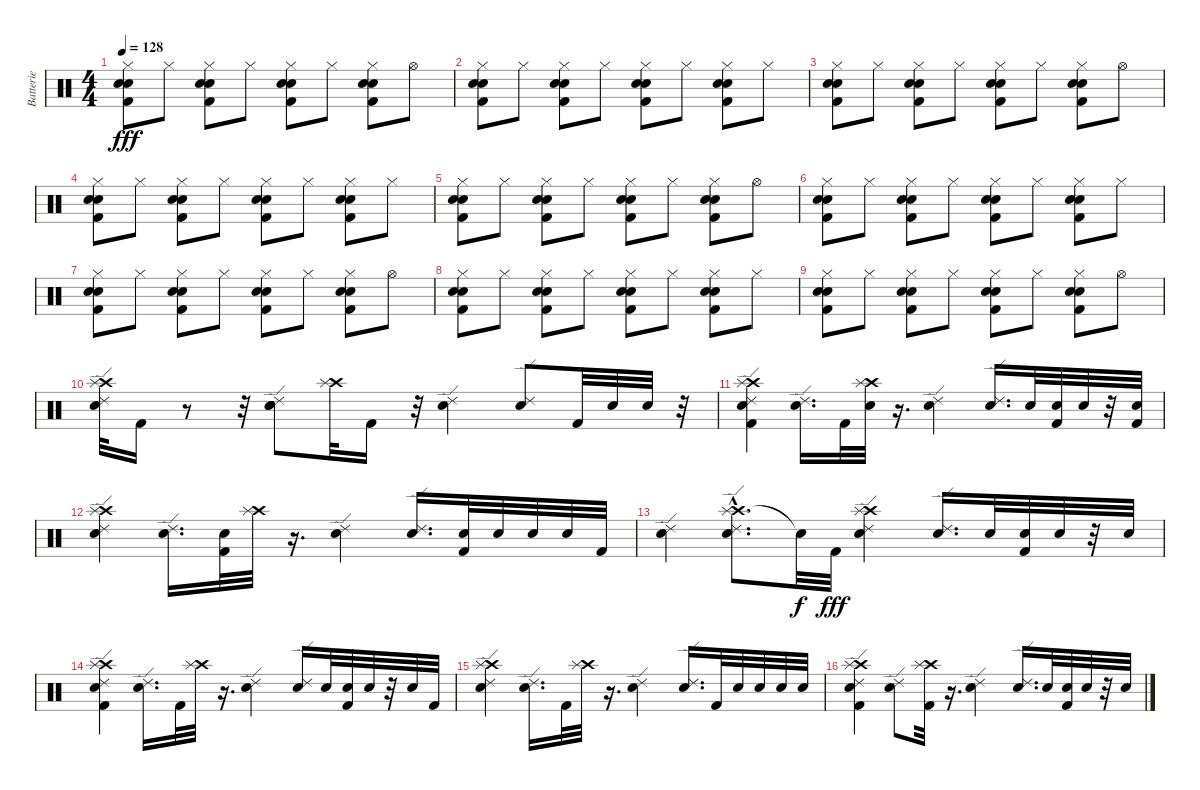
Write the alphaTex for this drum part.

\track ("Batterie" "Batterie") {instrument percussion}
\staff {score}
\articulation defaults
\ts (4 4)
\tempo 128
\clef neutral
\ks c
("Snare (hit) 2" "Kick (hit) 2" "Hi-Hat (closed)" "Electric Snare (hit)").8{dy fff} "Hi-Hat (closed)".8 ("Snare (hit) 2" "Kick (hit) 2" "Hi-Hat (closed)" "Electric Snare (hit)").8 "Hi-Hat (closed)".8 ("Kick (hit) 2" "Snare (hit) 2" "Hi-Hat (closed)" "Electric Snare (hit)").8 "Hi-Hat (closed)".8 ("Kick (hit) 2" "Snare (hit) 2" "Hi-Hat (closed)" "Electric Snare (hit)").8 "Hi-Hat (open)".8 |
("Snare (hit) 2" "Kick (hit) 2" "Hi-Hat (closed)" "Electric Snare (hit)").8 "Hi-Hat (closed)".8 ("Kick (hit) 2" "Snare (hit) 2" "Hi-Hat (closed)" "Electric Snare (hit)").8 "Hi-Hat (closed)".8 ("Snare (hit) 2" "Kick (hit) 2" "Hi-Hat (closed)" "Electric Snare (hit)").8 "Hi-Hat (closed)".8 ("Snare (hit) 2" "Kick (hit) 2" "Hi-Hat (closed)" "Electric Snare (hit)").8 "Hi-Hat (closed)".8 |
("Snare (hit) 2" "Kick (hit) 2" "Hi-Hat (closed)" "Electric Snare (hit)").8 "Hi-Hat (closed)".8 ("Snare (hit) 2" "Kick (hit) 2" "Hi-Hat (closed)" "Electric Snare (hit)").8 "Hi-Hat (closed)".8 ("Kick (hit) 2" "Snare (hit) 2" "Hi-Hat (closed)" "Electric Snare (hit)").8 "Hi-Hat (closed)".8 ("Kick (hit) 2" "Snare (hit) 2" "Hi-Hat (closed)" "Electric Snare (hit)").8 "Hi-Hat (open)".8 |
("Snare (hit) 2" "Kick (hit) 2" "Hi-Hat (closed)" "Electric Snare (hit)").8 "Hi-Hat (closed)".8 ("Kick (hit) 2" "Snare (hit) 2" "Hi-Hat (closed)" "Electric Snare (hit)").8 "Hi-Hat (closed)".8 ("Snare (hit) 2" "Kick (hit) 2" "Hi-Hat (closed)" "Electric Snare (hit)").8 "Hi-Hat (closed)".8 ("Snare (hit) 2" "Kick (hit) 2" "Hi-Hat (closed)" "Electric Snare (hit)").8 "Hi-Hat (closed)".8 |
("Snare (hit) 2" "Kick (hit) 2" "Hi-Hat (closed)" "Electric Snare (hit)").8 "Hi-Hat (closed)".8 ("Snare (hit) 2" "Kick (hit) 2" "Hi-Hat (closed)" "Electric Snare (hit)").8 "Hi-Hat (closed)".8 ("Kick (hit) 2" "Snare (hit) 2" "Hi-Hat (closed)" "Electric Snare (hit)").8 "Hi-Hat (closed)".8 ("Kick (hit) 2" "Snare (hit) 2" "Hi-Hat (closed)" "Electric Snare (hit)").8 "Hi-Hat (open)".8 |
("Snare (hit) 2" "Kick (hit) 2" "Hi-Hat (closed)" "Electric Snare (hit)").8 "Hi-Hat (closed)".8 ("Kick (hit) 2" "Snare (hit) 2" "Hi-Hat (closed)" "Electric Snare (hit)").8 "Hi-Hat (closed)".8 ("Snare (hit) 2" "Kick (hit) 2" "Hi-Hat (closed)" "Electric Snare (hit)").8 "Hi-Hat (closed)".8 ("Snare (hit) 2" "Kick (hit) 2" "Hi-Hat (closed)" "Electric Snare (hit)").8 "Hi-Hat (closed)".8 |
("Snare (hit) 2" "Kick (hit) 2" "Hi-Hat (closed)" "Electric Snare (hit)").8 "Hi-Hat (closed)".8 ("Snare (hit) 2" "Kick (hit) 2" "Hi-Hat (closed)" "Electric Snare (hit)").8 "Hi-Hat (closed)".8 ("Kick (hit) 2" "Snare (hit) 2" "Hi-Hat (closed)" "Electric Snare (hit)").8 "Hi-Hat (closed)".8 ("Kick (hit) 2" "Snare (hit) 2" "Hi-Hat (closed)" "Electric Snare (hit)").8 "Hi-Hat (open)".8 |
("Snare (hit) 2" "Kick (hit) 2" "Hi-Hat (closed)" "Electric Snare (hit)").8 "Hi-Hat (closed)".8 ("Kick (hit) 2" "Snare (hit) 2" "Hi-Hat (closed)" "Electric Snare (hit)").8 "Hi-Hat (closed)".8 ("Snare (hit) 2" "Kick (hit) 2" "Hi-Hat (closed)" "Electric Snare (hit)").8 "Hi-Hat (closed)".8 ("Snare (hit) 2" "Kick (hit) 2" "Hi-Hat (closed)" "Electric Snare (hit)").8 "Hi-Hat (closed)".8 |
("Snare (hit) 2" "Kick (hit) 2" "Hi-Hat (closed)" "Electric Snare (hit)").8 "Hi-Hat (closed)".8 ("Snare (hit) 2" "Kick (hit) 2" "Hi-Hat (closed)" "Electric Snare (hit)").8 "Hi-Hat (closed)".8 ("Kick (hit) 2" "Snare (hit) 2" "Hi-Hat (closed)" "Electric Snare (hit)").8 "Hi-Hat (closed)".8 ("Kick (hit) 2" "Snare (hit) 2" "Hi-Hat (closed)" "Electric Snare (hit)").8 "Hi-Hat (open)".8 |
("Ride (edge) 2" "Electric Snare (hit)" "Crash high (hit)" "Splash (hit)").32 "Kick (hit) 2".16 r.8 r.32 ("Ride (edge) 2" "Electric Snare (hit)" "Snare (hit) 2").8 ("Crash high (hit)" "Splash (hit)").32 "Kick (hit) 2".16 r.32 ("Ride (edge) 2" "Electric Snare (hit)").4 ("Ride (edge) 2" "Electric Snare (hit)").8 "Kick (hit) 2".32 "Snare (hit) 2".32 "Snare (hit) 2".32 r.32 |
("Crash high (hit)" "Splash (hit)" "Ride (edge) 2" "Kick (hit) 2" "Electric Snare (hit)").4 ("Ride (edge) 2" "Electric Snare (hit)").16{d} "Kick (hit) 2".32 ("Snare (hit) 2" "Crash high (hit)" "Splash (hit)").32 r.16{d} ("Ride (edge) 2" "Electric Snare (hit)").4 ("Ride (edge) 2" "Electric Snare (hit)").16{d} "Snare (hit) 2".32 ("Kick (hit) 2" "Snare (hit) 2").32 "Snare (hit) 2".32 r.32 ("Snare (hit) 2" "Kick (hit) 2").32 |
("Crash high (hit)" "Splash (hit)" "Ride (edge) 2" "Electric Snare (hit)").4 ("Ride (edge) 2" "Electric Snare (hit)").16{d} ("Snare (hit) 2" "Kick (hit) 2").32 ("Crash high (hit)" "Splash (hit)").32 r.16{d} ("Ride (edge) 2" "Electric Snare (hit)").4 ("Ride (edge) 2" "Electric Snare (hit)").16{d} ("Snare (hit) 2" "Kick (hit) 2").32 "Snare (hit) 2".32 "Snare (hit) 2".32 "Snare (hit) 2".32 "Kick (hit) 2".32 |
("Ride (edge) 2" "Electric Snare (hit)").4 ("Crash high (hit)" "Splash (hit)" "Ride (edge) 2"{hac} "Electric Snare (hit)").8{d} "Snare (hit)"{t}.32{dy f} "Kick (hit) 2".32{dy fff} ("Crash high (hit)" "Splash (hit)" "Ride (edge) 2" "Electric Snare (hit)").4 ("Ride (edge) 2" "Electric Snare (hit)").16{d} "Snare (hit) 2".32 ("Kick (hit) 2" "Snare (hit) 2").32 "Snare (hit) 2".32 r.32 "Snare (hit) 2".32 |
("Kick (hit) 2" "Crash high (hit)" "Splash (hit)" "Ride (edge) 2" "Electric Snare (hit)").4 ("Ride (edge) 2" "Electric Snare (hit)").16{d} "Kick (hit) 2".32 ("Crash high (hit)" "Splash (hit)").32 r.16{d} ("Ride (edge) 2" "Electric Snare (hit)").4 ("Ride (edge) 2" "Electric Snare (hit)").16 "Snare (hit) 2".32 ("Kick (hit) 2" "Snare (hit) 2").32 "Snare (hit) 2".32 r.32 "Snare (hit) 2".32 "Kick (hit) 2".32 |
("Crash high (hit)" "Splash (hit)" "Ride (edge) 2" "Electric Snare (hit)").4 ("Ride (edge) 2" "Electric Snare (hit)").16{d} "Kick (hit) 2".32 ("Crash high (hit)" "Splash (hit)").32 r.16{d} ("Ride (edge) 2" "Electric Snare (hit)").4 ("Ride (edge) 2" "Electric Snare (hit)").16{d} "Kick (hit) 2".32 "Snare (hit) 2".32 "Snare (hit) 2".32 "Snare (hit) 2".32 "Snare (hit) 2".32 |
("Kick (hit) 2" "Crash high (hit)" "Splash (hit)" "Ride (edge) 2" "Electric Snare (hit)").4 ("Ride (edge) 2" "Electric Snare (hit)").8 ("Crash high (hit)" "Splash (hit)" "Kick (hit) 2").32 r.16{d} ("Ride (edge) 2" "Electric Snare (hit)").4 ("Ride (edge) 2" "Electric Snare (hit)").16{d} "Snare (hit) 2".32 ("Kick (hit) 2" "Snare (hit) 2").32 "Snare (hit) 2".32 r.32 "Snare (hit) 2".32
